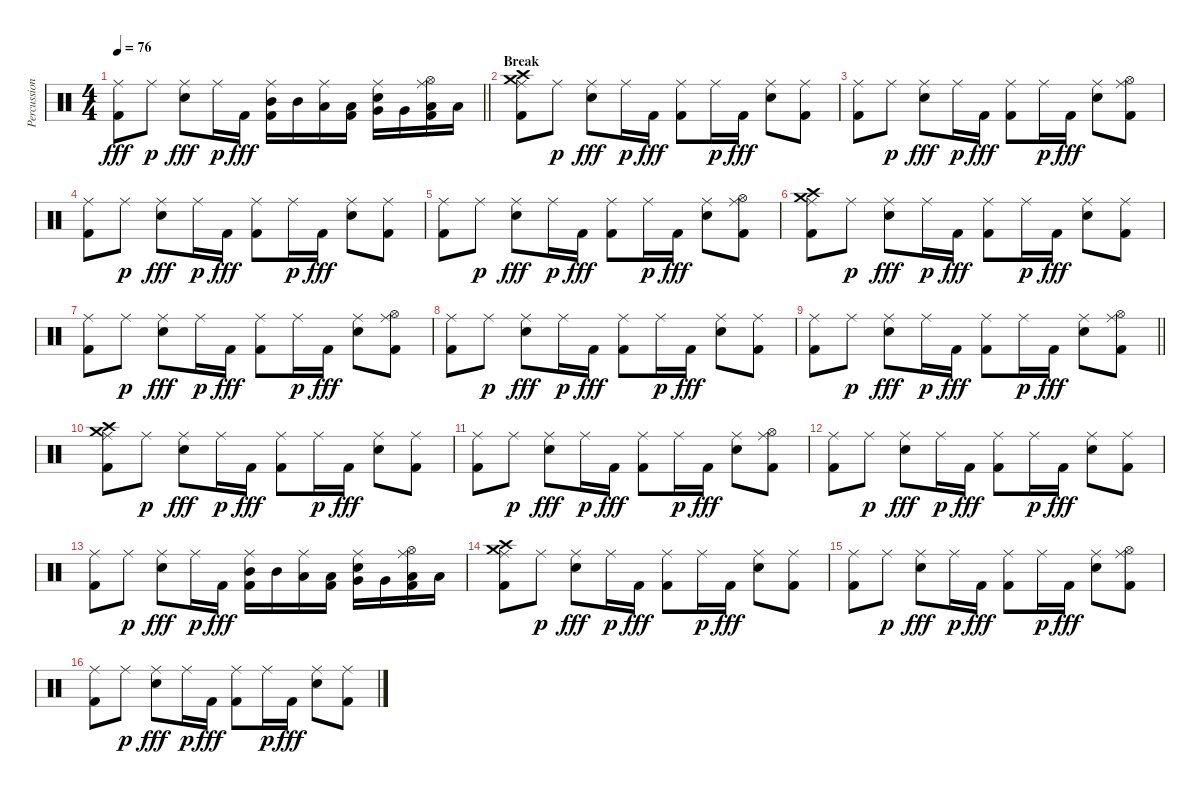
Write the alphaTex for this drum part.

\track ("Percussions" "Percussion") {instrument percussion}
\staff {score}
\articulation defaults
\ts (4 4)
\tempo 76
\clef neutral
\barLineRight lightlight
\ks c
("Ride (middle)" "Kick (hit) 2").8{dy fff} "Ride (middle)".8{dy p} ("Ride (middle)" "Electric Snare (hit)").8{dy fff} "Ride (middle)".16{dy p} "Kick (hit) 2".16{dy fff} ("Ride (middle)" "Mid Tom (hit)" "Kick (hit) 2").16 "Mid Tom (hit)".16 ("Ride (middle)" "Low Tom (hit)").16 ("Low Tom (hit)" "Kick (hit) 2").16 ("Ride (middle)" "Electric Snare (hit)" "Very Low Tom (hit)").16 "Very Low Tom (hit)".16 ("Ride (middle)" "Hi-Hat (open)" "Low Floor Tom (hit)" "Kick (hit) 2").16 "Low Floor Tom (hit)".16 |
\section ("" "Break")
("Ride (middle)" "Crash medium (hit)" "Crash high (hit)" "Kick (hit) 2").8 "Ride (middle)".8{dy p} ("Ride (middle)" "Electric Snare (hit)").8{dy fff} "Ride (middle)".16{dy p} "Kick (hit) 2".16{dy fff} ("Ride (middle)" "Kick (hit) 2").8 "Ride (middle)".16{dy p} "Kick (hit) 2".16{dy fff} ("Ride (middle)" "Electric Snare (hit)").8 ("Ride (middle)" "Kick (hit) 2").8 |
("Ride (middle)" "Kick (hit) 2").8 "Ride (middle)".8{dy p} ("Ride (middle)" "Electric Snare (hit)").8{dy fff} "Ride (middle)".16{dy p} "Kick (hit) 2".16{dy fff} ("Ride (middle)" "Kick (hit) 2").8 "Ride (middle)".16{dy p} "Kick (hit) 2".16{dy fff} ("Ride (middle)" "Electric Snare (hit)").8 ("Ride (middle)" "Hi-Hat (open)" "Kick (hit) 2").8 |
("Ride (middle)" "Kick (hit) 2").8 "Ride (middle)".8{dy p} ("Ride (middle)" "Electric Snare (hit)").8{dy fff} "Ride (middle)".16{dy p} "Kick (hit) 2".16{dy fff} ("Ride (middle)" "Kick (hit) 2").8 "Ride (middle)".16{dy p} "Kick (hit) 2".16{dy fff} ("Ride (middle)" "Electric Snare (hit)").8 ("Ride (middle)" "Kick (hit) 2").8 |
("Ride (middle)" "Kick (hit) 2").8 "Ride (middle)".8{dy p} ("Ride (middle)" "Electric Snare (hit)").8{dy fff} "Ride (middle)".16{dy p} "Kick (hit) 2".16{dy fff} ("Ride (middle)" "Kick (hit) 2").8 "Ride (middle)".16{dy p} "Kick (hit) 2".16{dy fff} ("Ride (middle)" "Electric Snare (hit)").8 ("Ride (middle)" "Hi-Hat (open)" "Kick (hit) 2").8 |
("Ride (middle)" "Crash medium (hit)" "Crash high (hit)" "Kick (hit) 2").8 "Ride (middle)".8{dy p} ("Ride (middle)" "Electric Snare (hit)").8{dy fff} "Ride (middle)".16{dy p} "Kick (hit) 2".16{dy fff} ("Ride (middle)" "Kick (hit) 2").8 "Ride (middle)".16{dy p} "Kick (hit) 2".16{dy fff} ("Ride (middle)" "Electric Snare (hit)").8 ("Ride (middle)" "Kick (hit) 2").8 |
("Ride (middle)" "Kick (hit) 2").8 "Ride (middle)".8{dy p} ("Ride (middle)" "Electric Snare (hit)").8{dy fff} "Ride (middle)".16{dy p} "Kick (hit) 2".16{dy fff} ("Ride (middle)" "Kick (hit) 2").8 "Ride (middle)".16{dy p} "Kick (hit) 2".16{dy fff} ("Ride (middle)" "Electric Snare (hit)").8 ("Ride (middle)" "Hi-Hat (open)" "Kick (hit) 2").8 |
("Ride (middle)" "Kick (hit) 2").8 "Ride (middle)".8{dy p} ("Ride (middle)" "Electric Snare (hit)").8{dy fff} "Ride (middle)".16{dy p} "Kick (hit) 2".16{dy fff} ("Ride (middle)" "Kick (hit) 2").8 "Ride (middle)".16{dy p} "Kick (hit) 2".16{dy fff} ("Ride (middle)" "Electric Snare (hit)").8 ("Ride (middle)" "Kick (hit) 2").8 |
\barLineRight lightlight
("Ride (middle)" "Kick (hit) 2").8 "Ride (middle)".8{dy p} ("Ride (middle)" "Electric Snare (hit)").8{dy fff} "Ride (middle)".16{dy p} "Kick (hit) 2".16{dy fff} ("Ride (middle)" "Kick (hit) 2").8 "Ride (middle)".16{dy p} "Kick (hit) 2".16{dy fff} ("Ride (middle)" "Electric Snare (hit)").8 ("Ride (middle)" "Hi-Hat (open)" "Kick (hit) 2").8 |
("Ride (middle)" "Crash medium (hit)" "Crash high (hit)" "Kick (hit) 2").8 "Ride (middle)".8{dy p} ("Ride (middle)" "Electric Snare (hit)").8{dy fff} "Ride (middle)".16{dy p} "Kick (hit) 2".16{dy fff} ("Ride (middle)" "Kick (hit) 2").8 "Ride (middle)".16{dy p} "Kick (hit) 2".16{dy fff} ("Ride (middle)" "Electric Snare (hit)").8 ("Ride (middle)" "Kick (hit) 2").8 |
("Ride (middle)" "Kick (hit) 2").8 "Ride (middle)".8{dy p} ("Ride (middle)" "Electric Snare (hit)").8{dy fff} "Ride (middle)".16{dy p} "Kick (hit) 2".16{dy fff} ("Ride (middle)" "Kick (hit) 2").8 "Ride (middle)".16{dy p} "Kick (hit) 2".16{dy fff} ("Ride (middle)" "Electric Snare (hit)").8 ("Ride (middle)" "Hi-Hat (open)" "Kick (hit) 2").8 |
("Ride (middle)" "Kick (hit) 2").8 "Ride (middle)".8{dy p} ("Ride (middle)" "Electric Snare (hit)").8{dy fff} "Ride (middle)".16{dy p} "Kick (hit) 2".16{dy fff} ("Ride (middle)" "Kick (hit) 2").8 "Ride (middle)".16{dy p} "Kick (hit) 2".16{dy fff} ("Ride (middle)" "Electric Snare (hit)").8 ("Ride (middle)" "Kick (hit) 2").8 |
("Ride (middle)" "Kick (hit) 2").8 "Ride (middle)".8{dy p} ("Ride (middle)" "Electric Snare (hit)").8{dy fff} "Ride (middle)".16{dy p} "Kick (hit) 2".16{dy fff} ("Ride (middle)" "Mid Tom (hit)" "Kick (hit) 2").16 "Mid Tom (hit)".16 ("Ride (middle)" "Low Tom (hit)").16 ("Low Tom (hit)" "Kick (hit) 2").16 ("Ride (middle)" "Electric Snare (hit)" "Very Low Tom (hit)").16 "Very Low Tom (hit)".16 ("Ride (middle)" "Hi-Hat (open)" "Low Floor Tom (hit)" "Kick (hit) 2").16 "Low Floor Tom (hit)".16 |
("Ride (middle)" "Crash medium (hit)" "Crash high (hit)" "Kick (hit) 2").8 "Ride (middle)".8{dy p} ("Ride (middle)" "Electric Snare (hit)").8{dy fff} "Ride (middle)".16{dy p} "Kick (hit) 2".16{dy fff} ("Ride (middle)" "Kick (hit) 2").8 "Ride (middle)".16{dy p} "Kick (hit) 2".16{dy fff} ("Ride (middle)" "Electric Snare (hit)").8 ("Ride (middle)" "Kick (hit) 2").8 |
("Ride (middle)" "Kick (hit) 2").8 "Ride (middle)".8{dy p} ("Ride (middle)" "Electric Snare (hit)").8{dy fff} "Ride (middle)".16{dy p} "Kick (hit) 2".16{dy fff} ("Ride (middle)" "Kick (hit) 2").8 "Ride (middle)".16{dy p} "Kick (hit) 2".16{dy fff} ("Ride (middle)" "Electric Snare (hit)").8 ("Ride (middle)" "Hi-Hat (open)" "Kick (hit) 2").8 |
("Ride (middle)" "Kick (hit) 2").8 "Ride (middle)".8{dy p} ("Ride (middle)" "Electric Snare (hit)").8{dy fff} "Ride (middle)".16{dy p} "Kick (hit) 2".16{dy fff} ("Ride (middle)" "Kick (hit) 2").8 "Ride (middle)".16{dy p} "Kick (hit) 2".16{dy fff} ("Ride (middle)" "Electric Snare (hit)").8 ("Ride (middle)" "Kick (hit) 2").8
